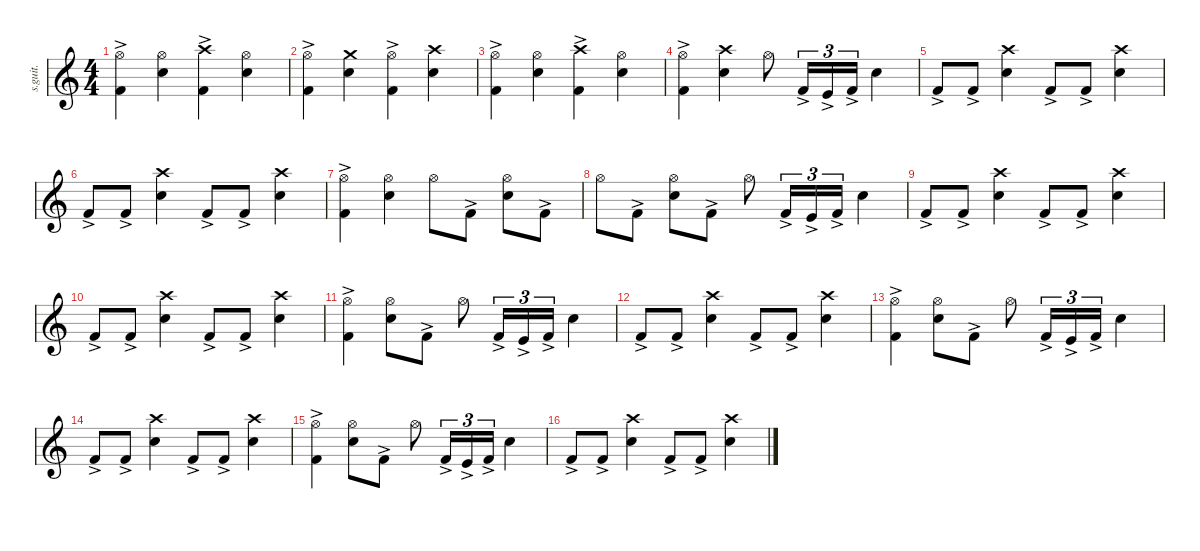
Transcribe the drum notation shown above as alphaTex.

\defaultSystemsLayout 4
\hideDynamics
\bracketExtendMode nobrackets
\track ("Lars Ulrich - Drums" "s.guit.") {instrument percussion}
\staff {score}
\articulation defaults
\ts (4 4)
\tempo (220 hide)
\clef g2
\ks c
("Hi-Hat (open)" "Kick (hit) 2"{ac}).4{lyrics (0 "") lyrics (1 "") lyrics (2 "") lyrics (3 "") lyrics (4 "") dy f} ("Hi-Hat (open)" "Snare (hit) 2").4{lyrics (0 "") lyrics (1 "") lyrics (2 "") lyrics (3 "") lyrics (4 "")} ("Kick (hit) 2"{ac} "Crash high (hit)").4{lyrics (0 "") lyrics (1 "") lyrics (2 "") lyrics (3 "") lyrics (4 "")} ("Hi-Hat (open)" "Snare (hit) 2").4{lyrics (0 "") lyrics (1 "") lyrics (2 "") lyrics (3 "") lyrics (4 "")} |
("Hi-Hat (open)" "Kick (hit) 2"{ac}).4{lyrics (0 "") lyrics (1 "") lyrics (2 "") lyrics (3 "") lyrics (4 "")} ("Crash medium (hit)" "Snare (hit) 2").4{lyrics (0 "") lyrics (1 "") lyrics (2 "") lyrics (3 "") lyrics (4 "")} ("Hi-Hat (open)" "Kick (hit) 2"{ac}).4{lyrics (0 "") lyrics (1 "") lyrics (2 "") lyrics (3 "") lyrics (4 "")} ("Crash high (hit)" "Snare (hit) 2").4{lyrics (0 "") lyrics (1 "") lyrics (2 "") lyrics (3 "") lyrics (4 "")} |
("Hi-Hat (open)" "Kick (hit) 2"{ac}).4{lyrics (0 "") lyrics (1 "") lyrics (2 "") lyrics (3 "") lyrics (4 "")} ("Hi-Hat (open)" "Snare (hit) 2").4{lyrics (0 "") lyrics (1 "") lyrics (2 "") lyrics (3 "") lyrics (4 "")} ("Crash high (hit)" "Kick (hit) 2"{ac}).4{lyrics (0 "") lyrics (1 "") lyrics (2 "") lyrics (3 "") lyrics (4 "")} ("Hi-Hat (open)" "Snare (hit) 2").4{lyrics (0 "") lyrics (1 "") lyrics (2 "") lyrics (3 "") lyrics (4 "")} |
("Hi-Hat (open)" "Kick (hit) 2"{ac}).4{lyrics (0 "") lyrics (1 "") lyrics (2 "") lyrics (3 "") lyrics (4 "")} ("Snare (hit) 2" "Crash high (hit)").4{lyrics (0 "") lyrics (1 "") lyrics (2 "") lyrics (3 "") lyrics (4 "")} "Hi-Hat (open)".8{lyrics (0 "") lyrics (1 "") lyrics (2 "") lyrics (3 "") lyrics (4 "")} "Kick (hit) 2"{ac}.16{tu (3 2) lyrics (0 "") lyrics (1 "") lyrics (2 "") lyrics (3 "") lyrics (4 "") dy mp} "Kick (hit)"{ac}.16{tu (3 2) lyrics (0 "") lyrics (1 "") lyrics (2 "") lyrics (3 "") lyrics (4 "") dy mf} "Kick (hit) 2"{ac}.16{tu (3 2) lyrics (0 "") lyrics (1 "") lyrics (2 "") lyrics (3 "") lyrics (4 "") dy mp} "Electric Snare (hit)".4{lyrics (0 "") lyrics (1 "") lyrics (2 "") lyrics (3 "") lyrics (4 "") dy f} |
"Kick (hit) 2"{ac}.8{lyrics (0 "") lyrics (1 "") lyrics (2 "") lyrics (3 "") lyrics (4 "") dy mp} "Kick (hit) 2"{ac}.8{lyrics (0 "") lyrics (1 "") lyrics (2 "") lyrics (3 "") lyrics (4 "")} ("Snare (hit) 2" "Crash high (hit)").4{lyrics (0 "") lyrics (1 "") lyrics (2 "") lyrics (3 "") lyrics (4 "") dy f} "Kick (hit) 2"{ac}.8{lyrics (0 "") lyrics (1 "") lyrics (2 "") lyrics (3 "") lyrics (4 "") dy mp} "Kick (hit) 2"{ac}.8{lyrics (0 "") lyrics (1 "") lyrics (2 "") lyrics (3 "") lyrics (4 "")} ("Snare (hit) 2" "Crash high (hit)").4{lyrics (0 "") lyrics (1 "") lyrics (2 "") lyrics (3 "") lyrics (4 "") dy f} |
"Kick (hit) 2"{ac}.8{lyrics (0 "") lyrics (1 "") lyrics (2 "") lyrics (3 "") lyrics (4 "") dy mp} "Kick (hit) 2"{ac}.8{lyrics (0 "") lyrics (1 "") lyrics (2 "") lyrics (3 "") lyrics (4 "")} ("Snare (hit) 2" "Crash high (hit)").4{lyrics (0 "") lyrics (1 "") lyrics (2 "") lyrics (3 "") lyrics (4 "") dy f} "Kick (hit) 2"{ac}.8{lyrics (0 "") lyrics (1 "") lyrics (2 "") lyrics (3 "") lyrics (4 "") dy mp} "Kick (hit) 2"{ac}.8{lyrics (0 "") lyrics (1 "") lyrics (2 "") lyrics (3 "") lyrics (4 "")} ("Snare (hit) 2" "Crash high (hit)").4{lyrics (0 "") lyrics (1 "") lyrics (2 "") lyrics (3 "") lyrics (4 "") dy f} |
("Hi-Hat (open)" "Kick (hit) 2"{ac}).4{lyrics (0 "") lyrics (1 "") lyrics (2 "") lyrics (3 "") lyrics (4 "")} ("Hi-Hat (open)" "Snare (hit) 2").4{lyrics (0 "") lyrics (1 "") lyrics (2 "") lyrics (3 "") lyrics (4 "")} "Hi-Hat (open)".8{lyrics (0 "") lyrics (1 "") lyrics (2 "") lyrics (3 "") lyrics (4 "")} "Kick (hit) 2"{ac}.8{lyrics (0 "") lyrics (1 "") lyrics (2 "") lyrics (3 "") lyrics (4 "") dy mp} ("Hi-Hat (open)" "Snare (hit) 2").8{lyrics (0 "") lyrics (1 "") lyrics (2 "") lyrics (3 "") lyrics (4 "") dy f} "Kick (hit) 2"{ac}.8{lyrics (0 "") lyrics (1 "") lyrics (2 "") lyrics (3 "") lyrics (4 "") dy mp} |
"Hi-Hat (open)".8{lyrics (0 "") lyrics (1 "") lyrics (2 "") lyrics (3 "") lyrics (4 "") dy f} "Kick (hit) 2"{ac}.8{lyrics (0 "") lyrics (1 "") lyrics (2 "") lyrics (3 "") lyrics (4 "") dy mp} ("Hi-Hat (open)" "Snare (hit) 2").8{lyrics (0 "") lyrics (1 "") lyrics (2 "") lyrics (3 "") lyrics (4 "") dy f} "Kick (hit) 2"{ac}.8{lyrics (0 "") lyrics (1 "") lyrics (2 "") lyrics (3 "") lyrics (4 "") dy mp} "Hi-Hat (open)".8{lyrics (0 "") lyrics (1 "") lyrics (2 "") lyrics (3 "") lyrics (4 "") dy f} "Kick (hit) 2"{ac}.16{tu (3 2) lyrics (0 "") lyrics (1 "") lyrics (2 "") lyrics (3 "") lyrics (4 "") dy mp} "Kick (hit)"{ac}.16{tu (3 2) lyrics (0 "") lyrics (1 "") lyrics (2 "") lyrics (3 "") lyrics (4 "") dy mf} "Kick (hit) 2"{ac}.16{tu (3 2) lyrics (0 "") lyrics (1 "") lyrics (2 "") lyrics (3 "") lyrics (4 "") dy mp} "Snare (hit) 2".4{lyrics (0 "") lyrics (1 "") lyrics (2 "") lyrics (3 "") lyrics (4 "") dy f} |
"Kick (hit) 2"{ac}.8{lyrics (0 "") lyrics (1 "") lyrics (2 "") lyrics (3 "") lyrics (4 "") dy mp} "Kick (hit) 2"{ac}.8{lyrics (0 "") lyrics (1 "") lyrics (2 "") lyrics (3 "") lyrics (4 "")} ("Snare (hit) 2" "Crash high (hit)").4{lyrics (0 "") lyrics (1 "") lyrics (2 "") lyrics (3 "") lyrics (4 "") dy f} "Kick (hit) 2"{ac}.8{lyrics (0 "") lyrics (1 "") lyrics (2 "") lyrics (3 "") lyrics (4 "") dy mp} "Kick (hit) 2"{ac}.8{lyrics (0 "") lyrics (1 "") lyrics (2 "") lyrics (3 "") lyrics (4 "")} ("Snare (hit) 2" "Crash high (hit)").4{lyrics (0 "") lyrics (1 "") lyrics (2 "") lyrics (3 "") lyrics (4 "") dy f} |
"Kick (hit) 2"{ac}.8{lyrics (0 "") lyrics (1 "") lyrics (2 "") lyrics (3 "") lyrics (4 "") dy mp} "Kick (hit) 2"{ac}.8{lyrics (0 "") lyrics (1 "") lyrics (2 "") lyrics (3 "") lyrics (4 "")} ("Snare (hit) 2" "Crash high (hit)").4{lyrics (0 "") lyrics (1 "") lyrics (2 "") lyrics (3 "") lyrics (4 "") dy f} "Kick (hit) 2"{ac}.8{lyrics (0 "") lyrics (1 "") lyrics (2 "") lyrics (3 "") lyrics (4 "") dy mp} "Kick (hit) 2"{ac}.8{lyrics (0 "") lyrics (1 "") lyrics (2 "") lyrics (3 "") lyrics (4 "")} ("Snare (hit) 2" "Crash high (hit)").4{lyrics (0 "") lyrics (1 "") lyrics (2 "") lyrics (3 "") lyrics (4 "") dy f} |
("Hi-Hat (open)" "Kick (hit) 2"{ac}).4{lyrics (0 "") lyrics (1 "") lyrics (2 "") lyrics (3 "") lyrics (4 "")} ("Hi-Hat (open)" "Snare (hit) 2").8{lyrics (0 "") lyrics (1 "") lyrics (2 "") lyrics (3 "") lyrics (4 "")} "Kick (hit) 2"{ac}.8{lyrics (0 "") lyrics (1 "") lyrics (2 "") lyrics (3 "") lyrics (4 "") dy mp} "Hi-Hat (open)".8{lyrics (0 "") lyrics (1 "") lyrics (2 "") lyrics (3 "") lyrics (4 "") dy f} "Kick (hit) 2"{ac}.16{tu (3 2) lyrics (0 "") lyrics (1 "") lyrics (2 "") lyrics (3 "") lyrics (4 "") dy mp} "Kick (hit)"{ac}.16{tu (3 2) lyrics (0 "") lyrics (1 "") lyrics (2 "") lyrics (3 "") lyrics (4 "") dy mf} "Kick (hit) 2"{ac}.16{tu (3 2) lyrics (0 "") lyrics (1 "") lyrics (2 "") lyrics (3 "") lyrics (4 "") dy mp} "Electric Snare (hit)".4{lyrics (0 "") lyrics (1 "") lyrics (2 "") lyrics (3 "") lyrics (4 "") dy f} |
"Kick (hit) 2"{ac}.8{lyrics (0 "") lyrics (1 "") lyrics (2 "") lyrics (3 "") lyrics (4 "") dy mp} "Kick (hit) 2"{ac}.8{lyrics (0 "") lyrics (1 "") lyrics (2 "") lyrics (3 "") lyrics (4 "")} ("Crash high (hit)" "Snare (hit) 2").4{lyrics (0 "") lyrics (1 "") lyrics (2 "") lyrics (3 "") lyrics (4 "") dy f} "Kick (hit) 2"{ac}.8{lyrics (0 "") lyrics (1 "") lyrics (2 "") lyrics (3 "") lyrics (4 "") dy mp} "Kick (hit) 2"{ac}.8{lyrics (0 "") lyrics (1 "") lyrics (2 "") lyrics (3 "") lyrics (4 "")} ("Snare (hit) 2" "Crash high (hit)").4{lyrics (0 "") lyrics (1 "") lyrics (2 "") lyrics (3 "") lyrics (4 "") dy f} |
("Hi-Hat (open)" "Kick (hit) 2"{ac}).4{lyrics (0 "") lyrics (1 "") lyrics (2 "") lyrics (3 "") lyrics (4 "")} ("Hi-Hat (open)" "Snare (hit) 2").8{lyrics (0 "") lyrics (1 "") lyrics (2 "") lyrics (3 "") lyrics (4 "")} "Kick (hit) 2"{ac}.8{lyrics (0 "") lyrics (1 "") lyrics (2 "") lyrics (3 "") lyrics (4 "") dy mp} "Hi-Hat (open)".8{lyrics (0 "") lyrics (1 "") lyrics (2 "") lyrics (3 "") lyrics (4 "") dy f} "Kick (hit) 2"{ac}.16{tu (3 2) lyrics (0 "") lyrics (1 "") lyrics (2 "") lyrics (3 "") lyrics (4 "") dy mp} "Kick (hit)"{ac}.16{tu (3 2) lyrics (0 "") lyrics (1 "") lyrics (2 "") lyrics (3 "") lyrics (4 "") dy mf} "Kick (hit) 2"{ac}.16{tu (3 2) lyrics (0 "") lyrics (1 "") lyrics (2 "") lyrics (3 "") lyrics (4 "") dy mp} "Electric Snare (hit)".4{lyrics (0 "") lyrics (1 "") lyrics (2 "") lyrics (3 "") lyrics (4 "") dy f} |
"Kick (hit) 2"{ac}.8{lyrics (0 "") lyrics (1 "") lyrics (2 "") lyrics (3 "") lyrics (4 "") dy mp} "Kick (hit) 2"{ac}.8{lyrics (0 "") lyrics (1 "") lyrics (2 "") lyrics (3 "") lyrics (4 "")} ("Crash high (hit)" "Snare (hit) 2").4{lyrics (0 "") lyrics (1 "") lyrics (2 "") lyrics (3 "") lyrics (4 "") dy f} "Kick (hit) 2"{ac}.8{lyrics (0 "") lyrics (1 "") lyrics (2 "") lyrics (3 "") lyrics (4 "") dy mp} "Kick (hit) 2"{ac}.8{lyrics (0 "") lyrics (1 "") lyrics (2 "") lyrics (3 "") lyrics (4 "")} ("Crash high (hit)" "Snare (hit) 2").4{lyrics (0 "") lyrics (1 "") lyrics (2 "") lyrics (3 "") lyrics (4 "") dy f} |
("Hi-Hat (open)" "Kick (hit) 2"{ac}).4{lyrics (0 "") lyrics (1 "") lyrics (2 "") lyrics (3 "") lyrics (4 "")} ("Hi-Hat (open)" "Snare (hit) 2").8{lyrics (0 "") lyrics (1 "") lyrics (2 "") lyrics (3 "") lyrics (4 "")} "Kick (hit) 2"{ac}.8{lyrics (0 "") lyrics (1 "") lyrics (2 "") lyrics (3 "") lyrics (4 "") dy mp} "Hi-Hat (open)".8{lyrics (0 "") lyrics (1 "") lyrics (2 "") lyrics (3 "") lyrics (4 "") dy f} "Kick (hit) 2"{ac}.16{tu (3 2) lyrics (0 "") lyrics (1 "") lyrics (2 "") lyrics (3 "") lyrics (4 "") dy mp} "Kick (hit)"{ac}.16{tu (3 2) lyrics (0 "") lyrics (1 "") lyrics (2 "") lyrics (3 "") lyrics (4 "") dy mf} "Kick (hit) 2"{ac}.16{tu (3 2) lyrics (0 "") lyrics (1 "") lyrics (2 "") lyrics (3 "") lyrics (4 "") dy mp} "Electric Snare (hit)".4{lyrics (0 "") lyrics (1 "") lyrics (2 "") lyrics (3 "") lyrics (4 "") dy f} |
"Kick (hit) 2"{ac}.8{lyrics (0 "") lyrics (1 "") lyrics (2 "") lyrics (3 "") lyrics (4 "") dy mp} "Kick (hit) 2"{ac}.8{lyrics (0 "") lyrics (1 "") lyrics (2 "") lyrics (3 "") lyrics (4 "")} ("Crash high (hit)" "Snare (hit) 2").4{lyrics (0 "") lyrics (1 "") lyrics (2 "") lyrics (3 "") lyrics (4 "") dy f} "Kick (hit) 2"{ac}.8{lyrics (0 "") lyrics (1 "") lyrics (2 "") lyrics (3 "") lyrics (4 "") dy mp} "Kick (hit) 2"{ac}.8{lyrics (0 "") lyrics (1 "") lyrics (2 "") lyrics (3 "") lyrics (4 "")} ("Crash high (hit)" "Snare (hit) 2").4{lyrics (0 "") lyrics (1 "") lyrics (2 "") lyrics (3 "") lyrics (4 "") dy f}
